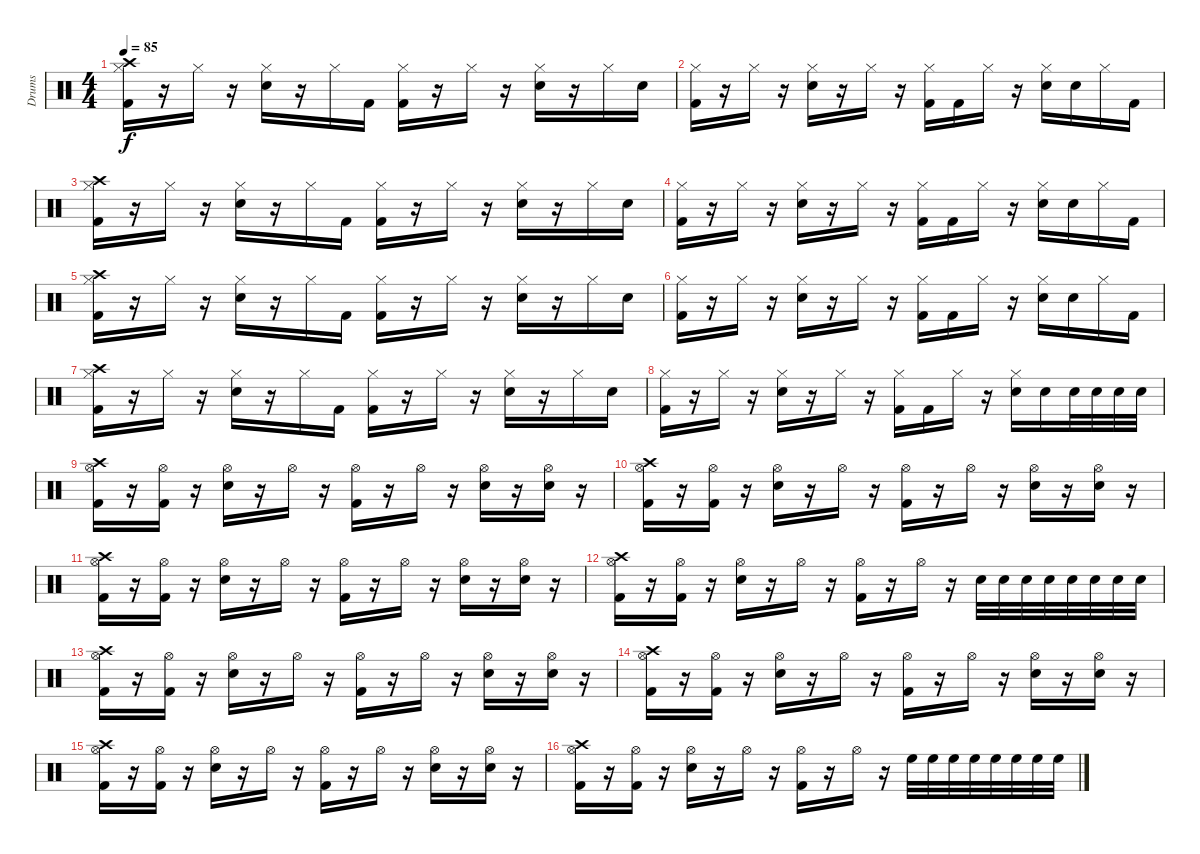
\track ("Drums" "Drums") {instrument percussion}
\staff {score}
\articulation defaults
\ts (4 4)
\tempo 85
\clef neutral
\ks c
("Hi-Hat (closed)" "Kick (hit) 2" "Crash high (hit)").16{dy f} r.16 "Hi-Hat (closed)".16 r.16 ("Hi-Hat (closed)" "Electric Snare (hit)").16 r.16 "Hi-Hat (closed)".16 "Kick (hit) 2".16 ("Hi-Hat (closed)" "Kick (hit) 2").16 r.16 "Hi-Hat (closed)".16 r.16 ("Hi-Hat (closed)" "Electric Snare (hit)").16 r.16 "Hi-Hat (closed)".16 "Electric Snare (hit)".16 |
("Hi-Hat (closed)" "Kick (hit) 2").16 r.16 "Hi-Hat (closed)".16 r.16 ("Hi-Hat (closed)" "Electric Snare (hit)").16 r.16 "Hi-Hat (closed)".16 r.16 ("Hi-Hat (closed)" "Kick (hit) 2").16 "Kick (hit) 2".16 "Hi-Hat (closed)".16 r.16 ("Hi-Hat (closed)" "Electric Snare (hit)").16 "Electric Snare (hit)".16 "Hi-Hat (closed)".16 "Kick (hit) 2".16 |
("Hi-Hat (closed)" "Kick (hit) 2" "Crash high (hit)").16 r.16 "Hi-Hat (closed)".16 r.16 ("Hi-Hat (closed)" "Electric Snare (hit)").16 r.16 "Hi-Hat (closed)".16 "Kick (hit) 2".16 ("Hi-Hat (closed)" "Kick (hit) 2").16 r.16 "Hi-Hat (closed)".16 r.16 ("Hi-Hat (closed)" "Electric Snare (hit)").16 r.16 "Hi-Hat (closed)".16 "Electric Snare (hit)".16 |
("Hi-Hat (closed)" "Kick (hit) 2").16 r.16 "Hi-Hat (closed)".16 r.16 ("Hi-Hat (closed)" "Electric Snare (hit)").16 r.16 "Hi-Hat (closed)".16 r.16 ("Hi-Hat (closed)" "Kick (hit) 2").16 "Kick (hit) 2".16 "Hi-Hat (closed)".16 r.16 ("Hi-Hat (closed)" "Electric Snare (hit)").16 "Electric Snare (hit)".16 "Hi-Hat (closed)".16 "Kick (hit) 2".16 |
("Hi-Hat (closed)" "Kick (hit) 2" "Crash high (hit)").16 r.16 "Hi-Hat (closed)".16 r.16 ("Hi-Hat (closed)" "Electric Snare (hit)").16 r.16 "Hi-Hat (closed)".16 "Kick (hit) 2".16 ("Hi-Hat (closed)" "Kick (hit) 2").16 r.16 "Hi-Hat (closed)".16 r.16 ("Hi-Hat (closed)" "Electric Snare (hit)").16 r.16 "Hi-Hat (closed)".16 "Electric Snare (hit)".16 |
("Hi-Hat (closed)" "Kick (hit) 2").16 r.16 "Hi-Hat (closed)".16 r.16 ("Hi-Hat (closed)" "Electric Snare (hit)").16 r.16 "Hi-Hat (closed)".16 r.16 ("Hi-Hat (closed)" "Kick (hit) 2").16 "Kick (hit) 2".16 "Hi-Hat (closed)".16 r.16 ("Hi-Hat (closed)" "Electric Snare (hit)").16 "Electric Snare (hit)".16 "Hi-Hat (closed)".16 "Kick (hit) 2".16 |
("Hi-Hat (closed)" "Kick (hit) 2" "Crash high (hit)").16 r.16 "Hi-Hat (closed)".16 r.16 ("Hi-Hat (closed)" "Electric Snare (hit)").16 r.16 "Hi-Hat (closed)".16 "Kick (hit) 2".16 ("Hi-Hat (closed)" "Kick (hit) 2").16 r.16 "Hi-Hat (closed)".16 r.16 ("Hi-Hat (closed)" "Electric Snare (hit)").16 r.16 "Hi-Hat (closed)".16 "Electric Snare (hit)".16 |
("Hi-Hat (closed)" "Kick (hit) 2").16 r.16 "Hi-Hat (closed)".16 r.16 ("Hi-Hat (closed)" "Electric Snare (hit)").16 r.16 "Hi-Hat (closed)".16 r.16 ("Hi-Hat (closed)" "Kick (hit) 2").16 "Kick (hit) 2".16 "Hi-Hat (closed)".16 r.16 ("Hi-Hat (closed)" "Electric Snare (hit)").16 "Electric Snare (hit)".16 "Electric Snare (hit)".32 "Electric Snare (hit)".32 "Electric Snare (hit)".32 "Electric Snare (hit)".32 |
("Hi-Hat (open)" "Kick (hit) 2" "Crash high (hit)").16 r.16 ("Hi-Hat (open)" "Kick (hit) 2").16 r.16 ("Hi-Hat (open)" "Electric Snare (hit)").16 r.16 "Hi-Hat (open)".16 r.16 ("Hi-Hat (open)" "Kick (hit) 2").16 r.16 "Hi-Hat (open)".16 r.16 ("Hi-Hat (open)" "Electric Snare (hit)").16 r.16 ("Hi-Hat (open)" "Electric Snare (hit)").16 r.16 |
("Hi-Hat (open)" "Kick (hit) 2" "Crash high (hit)").16 r.16 ("Hi-Hat (open)" "Kick (hit) 2").16 r.16 ("Hi-Hat (open)" "Electric Snare (hit)").16 r.16 "Hi-Hat (open)".16 r.16 ("Hi-Hat (open)" "Kick (hit) 2").16 r.16 "Hi-Hat (open)".16 r.16 ("Hi-Hat (open)" "Electric Snare (hit)").16 r.16 ("Hi-Hat (open)" "Electric Snare (hit)").16 r.16 |
("Hi-Hat (open)" "Kick (hit) 2" "Crash high (hit)").16 r.16 ("Hi-Hat (open)" "Kick (hit) 2").16 r.16 ("Hi-Hat (open)" "Electric Snare (hit)").16 r.16 "Hi-Hat (open)".16 r.16 ("Hi-Hat (open)" "Kick (hit) 2").16 r.16 "Hi-Hat (open)".16 r.16 ("Hi-Hat (open)" "Electric Snare (hit)").16 r.16 ("Hi-Hat (open)" "Electric Snare (hit)").16 r.16 |
("Hi-Hat (open)" "Kick (hit) 2" "Crash high (hit)").16 r.16 ("Hi-Hat (open)" "Kick (hit) 2").16 r.16 ("Hi-Hat (open)" "Electric Snare (hit)").16 r.16 "Hi-Hat (open)".16 r.16 ("Hi-Hat (open)" "Kick (hit) 2").16 r.16 "Hi-Hat (open)".16 r.16 "Electric Snare (hit)".32 "Electric Snare (hit)".32 "Electric Snare (hit)".32 "Electric Snare (hit)".32 "Electric Snare (hit)".32 "Electric Snare (hit)".32 "Electric Snare (hit)".32 "Electric Snare (hit)".32 |
("Hi-Hat (open)" "Kick (hit) 2" "Crash high (hit)").16 r.16 ("Hi-Hat (open)" "Kick (hit) 2").16 r.16 ("Hi-Hat (open)" "Electric Snare (hit)").16 r.16 "Hi-Hat (open)".16 r.16 ("Hi-Hat (open)" "Kick (hit) 2").16 r.16 "Hi-Hat (open)".16 r.16 ("Hi-Hat (open)" "Electric Snare (hit)").16 r.16 ("Hi-Hat (open)" "Electric Snare (hit)").16 r.16 |
("Hi-Hat (open)" "Kick (hit) 2" "Crash high (hit)").16 r.16 ("Hi-Hat (open)" "Kick (hit) 2").16 r.16 ("Hi-Hat (open)" "Electric Snare (hit)").16 r.16 "Hi-Hat (open)".16 r.16 ("Hi-Hat (open)" "Kick (hit) 2").16 r.16 "Hi-Hat (open)".16 r.16 ("Hi-Hat (open)" "Electric Snare (hit)").16 r.16 ("Hi-Hat (open)" "Electric Snare (hit)").16 r.16 |
("Hi-Hat (open)" "Kick (hit) 2" "Crash high (hit)").16 r.16 ("Hi-Hat (open)" "Kick (hit) 2").16 r.16 ("Hi-Hat (open)" "Electric Snare (hit)").16 r.16 "Hi-Hat (open)".16 r.16 ("Hi-Hat (open)" "Kick (hit) 2").16 r.16 "Hi-Hat (open)".16 r.16 ("Hi-Hat (open)" "Electric Snare (hit)").16 r.16 ("Hi-Hat (open)" "Electric Snare (hit)").16 r.16 |
("Hi-Hat (open)" "Kick (hit) 2" "Crash high (hit)").16 r.16 ("Hi-Hat (open)" "Kick (hit) 2").16 r.16 ("Hi-Hat (open)" "Electric Snare (hit)").16 r.16 "Hi-Hat (open)".16 r.16 ("Hi-Hat (open)" "Kick (hit) 2").16 r.16 "Hi-Hat (open)".16 r.16 "High Floor Tom (hit)".32 "High Floor Tom (hit)".32 "High Floor Tom (hit)".32 "High Floor Tom (hit)".32 "High Floor Tom (hit)".32 "High Floor Tom (hit)".32 "High Floor Tom (hit)".32 "High Floor Tom (hit)".32
